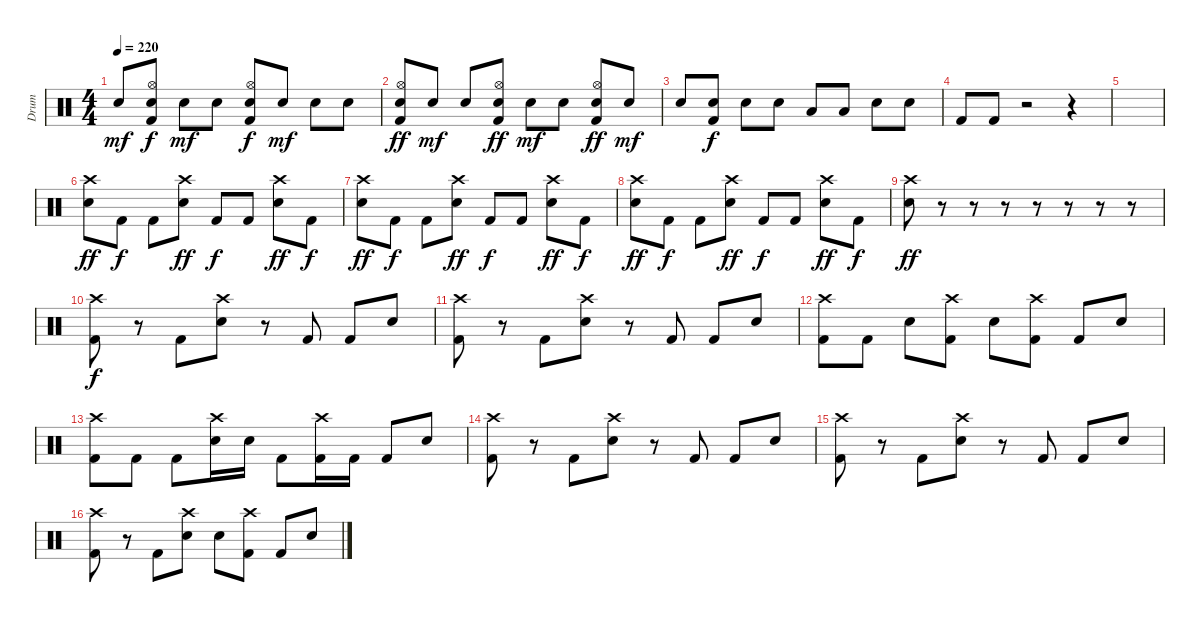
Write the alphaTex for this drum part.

\track ("Drum" "Drum") {instrument percussion}
\staff {score}
\articulation defaults
\ts (4 4)
\tempo 220
\clef neutral
\ks c "Snare (hit) 2".8{dy mf}
("Hi-Hat (open)" "Snare (hit) 2" "Kick (hit) 2").8{dy f} "Snare (hit) 2".8{dy mf} "Snare (hit) 2".8 ("Hi-Hat (open)" "Snare (hit) 2" "Kick (hit) 2").8{dy f} "Snare (hit) 2".8{dy mf} "Snare (hit) 2".8 "Snare (hit) 2".8 |
("Hi-Hat (open)" "Snare (hit) 2" "Kick (hit) 2").8{dy ff} "Snare (hit) 2".8{dy mf} "Snare (hit) 2".8 ("Hi-Hat (open)" "Snare (hit) 2" "Kick (hit) 2").8{dy ff} "Snare (hit) 2".8{dy mf} "Snare (hit) 2".8 ("Hi-Hat (open)" "Snare (hit) 2" "Kick (hit) 2").8{dy ff} "Snare (hit) 2".8{dy mf} |
"Snare (hit) 2".8 ("Snare (hit) 2" "Kick (hit) 2").8{dy f} "Snare (hit) 2".8 "Snare (hit) 2".8 "Low Tom (hit)".8 "Low Tom (hit)".8 "Snare (hit) 2".8 "Snare (hit) 2".8 |
"Kick (hit) 2".8 "Kick (hit) 2".8 r.2 r.4 |
|
("Crash high (hit)" "Snare (hit) 2").8{dy ff} "Kick (hit) 2".8{dy f} "Kick (hit) 2".8 ("Crash high (hit)" "Snare (hit) 2").8{dy ff} "Kick (hit) 2".8{dy f} "Kick (hit) 2".8 ("Crash high (hit)" "Snare (hit) 2").8{dy ff} "Kick (hit) 2".8{dy f} |
("Crash high (hit)" "Snare (hit) 2").8{dy ff} "Kick (hit) 2".8{dy f} "Kick (hit) 2".8 ("Crash high (hit)" "Snare (hit) 2").8{dy ff} "Kick (hit) 2".8{dy f} "Kick (hit) 2".8 ("Crash high (hit)" "Snare (hit) 2").8{dy ff} "Kick (hit) 2".8{dy f} |
("Crash high (hit)" "Snare (hit) 2").8{dy ff} "Kick (hit) 2".8{dy f} "Kick (hit) 2".8 ("Crash high (hit)" "Snare (hit) 2").8{dy ff} "Kick (hit) 2".8{dy f} "Kick (hit) 2".8 ("Crash high (hit)" "Snare (hit) 2").8{dy ff} "Kick (hit) 2".8{dy f} |
("Crash high (hit)" "Snare (hit) 2").8{dy ff} r.8 r.8 r.8 r.8 r.8 r.8 r.8 |
("Crash high (hit)" "Kick (hit) 2").8{dy f} r.8 "Kick (hit) 2".8 ("Crash high (hit)" "Snare (hit) 2").8 r.8 "Kick (hit) 2".8 "Kick (hit) 2".8 "Snare (hit) 2".8 |
("Crash high (hit)" "Kick (hit) 2").8 r.8 "Kick (hit) 2".8 ("Crash high (hit)" "Snare (hit) 2").8 r.8 "Kick (hit) 2".8 "Kick (hit) 2".8 "Snare (hit) 2".8 |
("Crash high (hit)" "Kick (hit) 2").8 "Kick (hit) 2".8 "Snare (hit) 2".8 ("Crash high (hit)" "Kick (hit) 2").8 "Snare (hit) 2".8 ("Crash high (hit)" "Kick (hit) 2").8 "Kick (hit) 2".8 "Snare (hit) 2".8 |
("Crash high (hit)" "Kick (hit) 2").8 "Kick (hit) 2".8 "Kick (hit) 2".8 ("Crash high (hit)" "Snare (hit) 2").16 "Snare (hit) 2".16 "Kick (hit) 2".8 ("Crash high (hit)" "Kick (hit) 2").16 "Kick (hit) 2".16 "Kick (hit) 2".8 "Snare (hit) 2".8 |
("Crash high (hit)" "Kick (hit) 2").8 r.8 "Kick (hit) 2".8 ("Crash high (hit)" "Snare (hit) 2").8 r.8 "Kick (hit) 2".8 "Kick (hit) 2".8 "Snare (hit) 2".8 |
("Crash high (hit)" "Kick (hit) 2").8 r.8 "Kick (hit) 2".8 ("Crash high (hit)" "Snare (hit) 2").8 r.8 "Kick (hit) 2".8 "Kick (hit) 2".8 "Snare (hit) 2".8 |
("Crash high (hit)" "Kick (hit) 2").8 r.8 "Kick (hit) 2".8 ("Crash high (hit)" "Snare (hit) 2").8 "Snare (hit) 2".8 ("Crash high (hit)" "Kick (hit) 2").8 "Kick (hit) 2".8 "Snare (hit) 2".8
